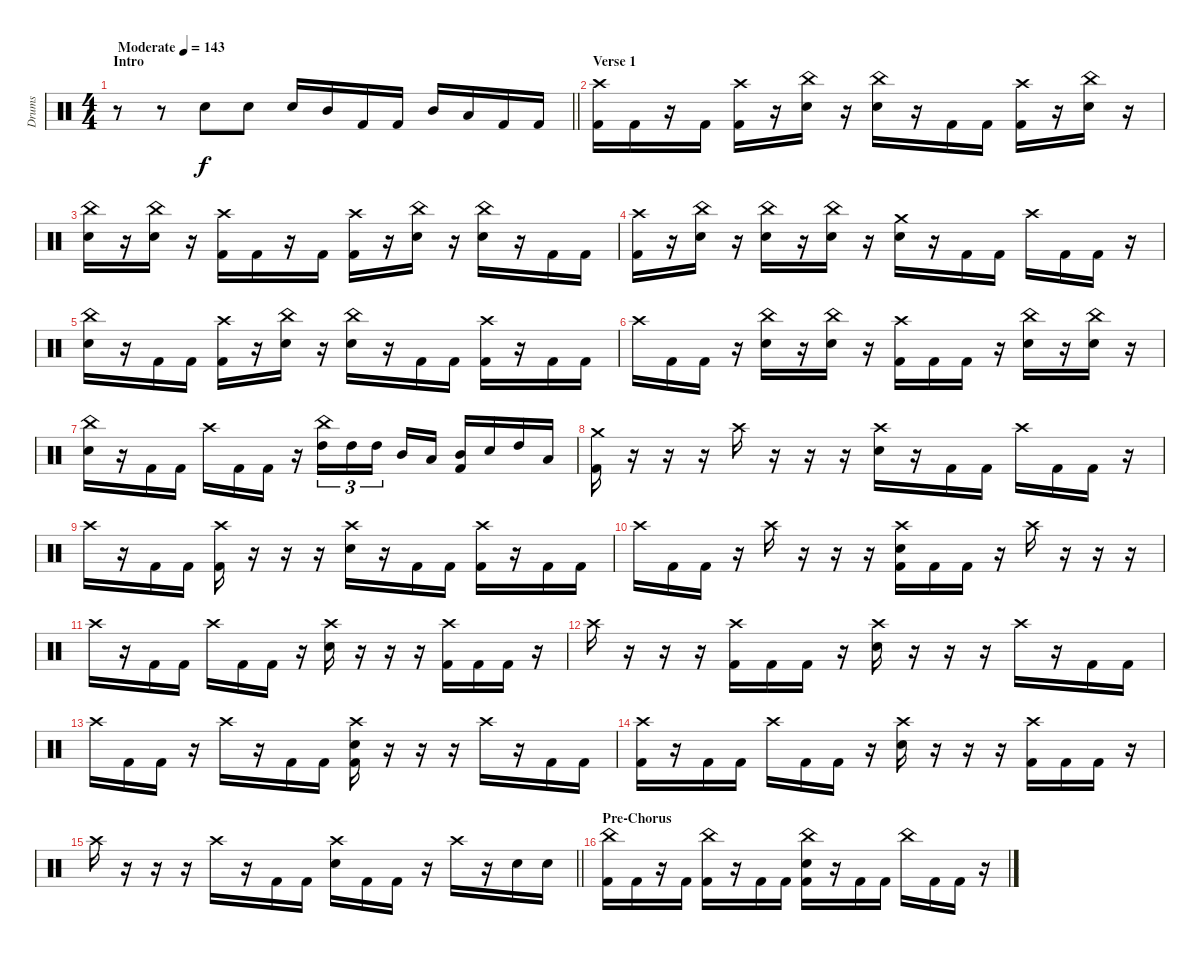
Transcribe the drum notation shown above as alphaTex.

\track ("Drums" "Drums") {instrument percussion}
\staff {score}
\articulation defaults
\ts (4 4)
\section ("" "Intro")
\tempo (143 "Moderate")
\clef neutral
\barLineRight lightlight
\ks c
r.8{dy f} r.8 "Electric Snare (hit)".8 "Electric Snare (hit)".8 "Electric Snare (hit)".16 "Mid Tom (hit)".16 "Kick (hit) 2".16 "Kick (hit) 2".16 "Mid Tom (hit)".16 "Low Tom (hit)".16 "Kick (hit) 2".16 "Kick (hit) 2".16 |
\section ("" "Verse 1")
("Crash high (hit)" "Kick (hit) 2").16 "Kick (hit) 2".16 r.16 "Kick (hit) 2".16 ("Crash high (hit)" "Kick (hit) 2").16 r.16 ("China (hit)" "Electric Snare (hit)").16 r.16 ("China (hit)" "Electric Snare (hit)").16 r.16 "Kick (hit) 2".16 "Kick (hit) 2".16 ("Crash high (hit)" "Kick (hit) 2").16 r.16 ("China (hit)" "Electric Snare (hit)").16 r.16 |
("China (hit)" "Electric Snare (hit)").16 r.16 ("China (hit)" "Electric Snare (hit)").16 r.16 ("Crash high (hit)" "Kick (hit) 2").16 "Kick (hit) 2".16 r.16 "Kick (hit) 2".16 ("Crash high (hit)" "Kick (hit) 2").16 r.16 ("China (hit)" "Electric Snare (hit)").16 r.16 ("China (hit)" "Electric Snare (hit)").16 r.16 "Kick (hit) 2".16 "Kick (hit) 2".16 |
("Crash high (hit)" "Kick (hit) 2").16 r.16 ("China (hit)" "Electric Snare (hit)").16 r.16 ("China (hit)" "Electric Snare (hit)").16 r.16 ("China (hit)" "Electric Snare (hit)").16 r.16 ("Crash medium (hit)" "Electric Snare (hit)").16 r.16 "Kick (hit) 2".16 "Kick (hit) 2".16 "Crash high (hit)".16 "Kick (hit) 2".16 "Kick (hit) 2".16 r.16 |
("China (hit)" "Electric Snare (hit)").16 r.16 "Kick (hit) 2".16 "Kick (hit) 2".16 ("Crash high (hit)" "Kick (hit) 2").16 r.16 ("China (hit)" "Electric Snare (hit)").16 r.16 ("China (hit)" "Electric Snare (hit)").16 r.16 "Kick (hit) 2".16 "Kick (hit) 2".16 ("Crash high (hit)" "Kick (hit) 2").16 r.16 "Kick (hit) 2".16 "Kick (hit) 2".16 |
"Crash high (hit)".16 "Kick (hit) 2".16 "Kick (hit) 2".16 r.16 ("China (hit)" "Electric Snare (hit)").16 r.16 ("China (hit)" "Electric Snare (hit)").16 r.16 ("Crash high (hit)" "Kick (hit) 2").16 "Kick (hit) 2".16 "Kick (hit) 2".16 r.16 ("China (hit)" "Electric Snare (hit)").16 r.16 ("China (hit)" "Electric Snare (hit)").16 r.16 |
("China (hit)" "Electric Snare (hit)").16 r.16 "Kick (hit) 2".16 "Kick (hit) 2".16 "Crash high (hit)".16 "Kick (hit) 2".16 "Kick (hit) 2".16 r.16 ("China (hit)" "High Tom (hit)").16{tu (3 2)} "High Tom (hit)".16{tu (3 2)} "High Tom (hit)".16{tu (3 2) beam splitsecondary} "Mid Tom (hit)".16 "Low Tom (hit)".16 ("Mid Tom (hit)" "Kick (hit) 2").16 "Electric Snare (hit)".16 "High Tom (hit)".16 "Low Tom (hit)".16 |
("Crash medium (hit)" "Kick (hit) 2").16 r.16 r.16 r.16 "Crash high (hit)".16 r.16 r.16 r.16 ("Crash high (hit)" "Electric Snare (hit)").16 r.16 "Kick (hit) 2".16 "Kick (hit) 2".16 "Crash high (hit)".16 "Kick (hit) 2".16 "Kick (hit) 2".16 r.16 |
"Crash high (hit)".16 r.16 "Kick (hit) 2".16 "Kick (hit) 2".16 ("Crash high (hit)" "Kick (hit) 2").16 r.16 r.16 r.16 ("Crash high (hit)" "Electric Snare (hit)").16 r.16 "Kick (hit) 2".16 "Kick (hit) 2".16 ("Crash high (hit)" "Kick (hit) 2").16 r.16 "Kick (hit) 2".16 "Kick (hit) 2".16 |
"Crash high (hit)".16 "Kick (hit) 2".16 "Kick (hit) 2".16 r.16 "Crash high (hit)".16 r.16 r.16 r.16 ("Crash high (hit)" "Electric Snare (hit)" "Kick (hit) 2").16 "Kick (hit) 2".16 "Kick (hit) 2".16 r.16 "Crash high (hit)".16 r.16 r.16 r.16 |
"Crash high (hit)".16 r.16 "Kick (hit) 2".16 "Kick (hit) 2".16 "Crash high (hit)".16 "Kick (hit) 2".16 "Kick (hit) 2".16 r.16 ("Crash high (hit)" "Electric Snare (hit)").16 r.16 r.16 r.16 ("Crash high (hit)" "Kick (hit) 2").16 "Kick (hit) 2".16 "Kick (hit) 2".16 r.16 |
"Crash high (hit)".16 r.16 r.16 r.16 ("Crash high (hit)" "Kick (hit) 2").16 "Kick (hit) 2".16 "Kick (hit) 2".16 r.16 ("Crash high (hit)" "Electric Snare (hit)").16 r.16 r.16 r.16 "Crash high (hit)".16 r.16 "Kick (hit) 2".16 "Kick (hit) 2".16 |
"Crash high (hit)".16 "Kick (hit) 2".16 "Kick (hit) 2".16 r.16 "Crash high (hit)".16 r.16 "Kick (hit) 2".16 "Kick (hit) 2".16 ("Crash high (hit)" "Electric Snare (hit)" "Kick (hit) 2").16 r.16 r.16 r.16 "Crash high (hit)".16 r.16 "Kick (hit) 2".16 "Kick (hit) 2".16 |
("Crash high (hit)" "Kick (hit) 2").16 r.16 "Kick (hit) 2".16 "Kick (hit) 2".16 "Crash high (hit)".16 "Kick (hit) 2".16 "Kick (hit) 2".16 r.16 ("Crash high (hit)" "Electric Snare (hit)").16 r.16 r.16 r.16 ("Crash high (hit)" "Kick (hit) 2").16 "Kick (hit) 2".16 "Kick (hit) 2".16 r.16 |
\barLineRight lightlight "Crash high (hit)".16
r.16 r.16 r.16 "Crash high (hit)".16 r.16 "Kick (hit) 2".16 "Kick (hit) 2".16 ("Crash high (hit)" "Electric Snare (hit)").16 "Kick (hit) 2".16 "Kick (hit) 2".16 r.16 "Crash high (hit)".16 r.16 "Electric Snare (hit)".16 "Electric Snare (hit)".16 |
\section ("" "Pre-Chorus")
("China (hit)" "Kick (hit) 2").16 "Kick (hit) 2".16 r.16 "Kick (hit) 2".16 ("China (hit)" "Kick (hit) 2").16 r.16 "Kick (hit) 2".16 "Kick (hit) 2".16 ("China (hit)" "Electric Snare (hit)" "Kick (hit) 2").16 r.16 "Kick (hit) 2".16 "Kick (hit) 2".16 "China (hit)".16 "Kick (hit) 2".16 "Kick (hit) 2".16 r.16
